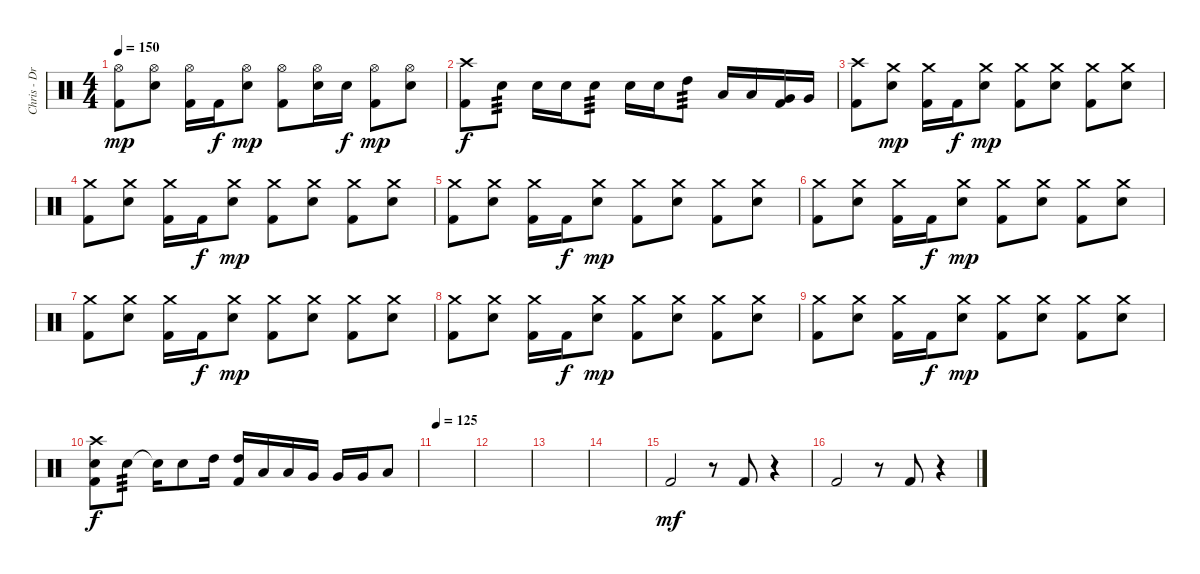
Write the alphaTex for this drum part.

\track ("Chris - Drums" "Chris - Dr") {instrument percussion}
\staff {score}
\articulation defaults
\ts (4 4)
\tempo 150
\clef neutral
\ks c
("Hi-Hat (open)" "Kick (hit) 2").8{dy mp} ("Hi-Hat (open)" "Electric Snare (hit)").8 ("Hi-Hat (open)" "Kick (hit) 2").16 "Kick (hit) 2".16{dy f} ("Hi-Hat (open)" "Electric Snare (hit)").8{dy mp} ("Hi-Hat (open)" "Kick (hit) 2").8 ("Hi-Hat (open)" "Electric Snare (hit)").16 "Electric Snare (hit)".16{dy f} ("Hi-Hat (open)" "Kick (hit) 2").8{dy mp} ("Hi-Hat (open)" "Electric Snare (hit)").8 |
("Crash high (hit)" "Kick (hit) 2").8{dy f} "Electric Snare (hit)".8{tp 3} "Electric Snare (hit)".16 "Electric Snare (hit)".16 "Electric Snare (hit)".8{tp 3} "Electric Snare (hit)".16 "Electric Snare (hit)".16 "High Tom (hit)".8{tp 3} "Low Tom (hit)".16 "Low Tom (hit)".16 ("Very Low Tom (hit)" "Kick (hit) 2").16 "Very Low Tom (hit)".16 |
("Crash high (hit)" "Kick (hit) 2").8 ("Crash medium (hit)" "Electric Snare (hit)").8{dy mp} ("Crash medium (hit)" "Kick (hit) 2").16 "Kick (hit) 2".16{dy f} ("Crash medium (hit)" "Electric Snare (hit)").8{dy mp} ("Crash medium (hit)" "Kick (hit) 2").8 ("Crash medium (hit)" "Electric Snare (hit)").8 ("Crash medium (hit)" "Kick (hit) 2").8 ("Crash medium (hit)" "Electric Snare (hit)").8 |
("Crash medium (hit)" "Kick (hit) 2").8 ("Crash medium (hit)" "Electric Snare (hit)").8 ("Crash medium (hit)" "Kick (hit) 2").16 "Kick (hit) 2".16{dy f} ("Crash medium (hit)" "Electric Snare (hit)").8{dy mp} ("Crash medium (hit)" "Kick (hit) 2").8 ("Crash medium (hit)" "Electric Snare (hit)").8 ("Crash medium (hit)" "Kick (hit) 2").8 ("Crash medium (hit)" "Electric Snare (hit)").8 |
("Crash medium (hit)" "Kick (hit) 2").8 ("Crash medium (hit)" "Electric Snare (hit)").8 ("Crash medium (hit)" "Kick (hit) 2").16 "Kick (hit) 2".16{dy f} ("Crash medium (hit)" "Electric Snare (hit)").8{dy mp} ("Crash medium (hit)" "Kick (hit) 2").8 ("Crash medium (hit)" "Electric Snare (hit)").8 ("Crash medium (hit)" "Kick (hit) 2").8 ("Crash medium (hit)" "Electric Snare (hit)").8 |
("Crash medium (hit)" "Kick (hit) 2").8 ("Crash medium (hit)" "Electric Snare (hit)").8 ("Crash medium (hit)" "Kick (hit) 2").16 "Kick (hit) 2".16{dy f} ("Crash medium (hit)" "Electric Snare (hit)").8{dy mp} ("Crash medium (hit)" "Kick (hit) 2").8 ("Crash medium (hit)" "Electric Snare (hit)").8 ("Crash medium (hit)" "Kick (hit) 2").8 ("Crash medium (hit)" "Electric Snare (hit)").8 |
("Crash medium (hit)" "Kick (hit) 2").8 ("Crash medium (hit)" "Electric Snare (hit)").8 ("Crash medium (hit)" "Kick (hit) 2").16 "Kick (hit) 2".16{dy f} ("Crash medium (hit)" "Electric Snare (hit)").8{dy mp} ("Crash medium (hit)" "Kick (hit) 2").8 ("Crash medium (hit)" "Electric Snare (hit)").8 ("Crash medium (hit)" "Kick (hit) 2").8 ("Crash medium (hit)" "Electric Snare (hit)").8 |
("Crash medium (hit)" "Kick (hit) 2").8 ("Crash medium (hit)" "Electric Snare (hit)").8 ("Crash medium (hit)" "Kick (hit) 2").16 "Kick (hit) 2".16{dy f} ("Crash medium (hit)" "Electric Snare (hit)").8{dy mp} ("Crash medium (hit)" "Kick (hit) 2").8 ("Crash medium (hit)" "Electric Snare (hit)").8 ("Crash medium (hit)" "Kick (hit) 2").8 ("Crash medium (hit)" "Electric Snare (hit)").8 |
("Crash medium (hit)" "Kick (hit) 2").8 ("Crash medium (hit)" "Electric Snare (hit)").8 ("Crash medium (hit)" "Kick (hit) 2").16 "Kick (hit) 2".16{dy f} ("Crash medium (hit)" "Electric Snare (hit)").8{dy mp} ("Crash medium (hit)" "Kick (hit) 2").8 ("Crash medium (hit)" "Electric Snare (hit)").8 ("Crash medium (hit)" "Kick (hit) 2").8 ("Crash medium (hit)" "Electric Snare (hit)").8 |
("Crash high (hit)" "Electric Snare (hit)" "Kick (hit) 2").8{dy f} "Electric Snare (hit)".8{tp 3} "Electric Snare (hit)"{t}.16 "Electric Snare (hit)".8 "High Tom (hit)".16 ("High Tom (hit)" "Kick (hit) 2").16 "Low Tom (hit)".16 "Low Tom (hit)".16 "Very Low Tom (hit)".16 "Very Low Tom (hit)".16 "Very Low Tom (hit)".16 "Low Floor Tom (hit)".8 |
\tempo 125
|
|
|
|
"Kick (hit) 2".2{dy mf} r.8 "Kick (hit) 2".8 r.4 |
"Kick (hit) 2".2 r.8 "Kick (hit) 2".8 r.4
